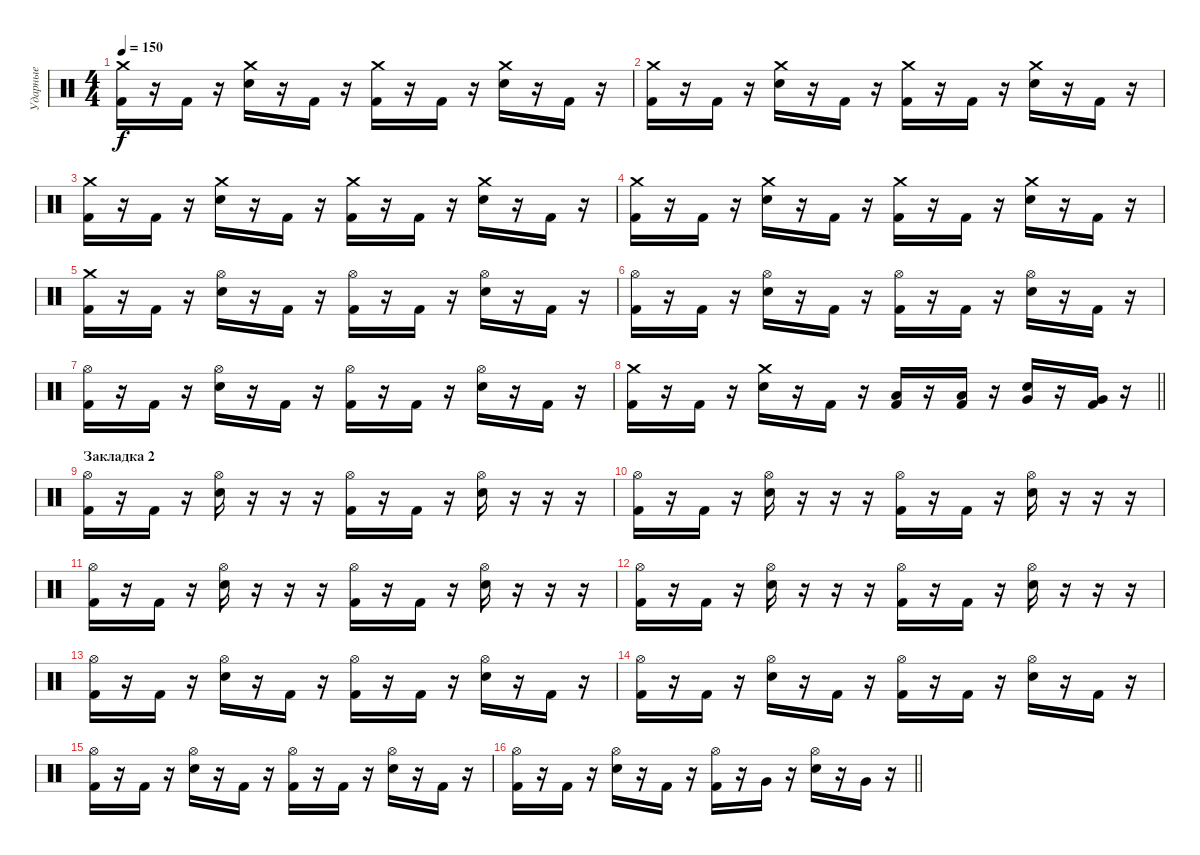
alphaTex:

\track ("Ударные" "Ударные") {instrument percussion}
\staff {score}
\articulation defaults
\ts (4 4)
\tempo 150
\clef neutral
\ks c
("Crash medium (hit)" "Kick (hit) 2").16{dy f} r.16 "Kick (hit) 2".16 r.16 ("Crash medium (hit)" "Electric Snare (hit)").16 r.16 "Kick (hit) 2".16 r.16 ("Crash medium (hit)" "Kick (hit) 2").16 r.16 "Kick (hit) 2".16 r.16 ("Crash medium (hit)" "Electric Snare (hit)").16 r.16 "Kick (hit) 2".16 r.16 |
("Crash medium (hit)" "Kick (hit) 2").16 r.16 "Kick (hit) 2".16 r.16 ("Crash medium (hit)" "Electric Snare (hit)").16 r.16 "Kick (hit) 2".16 r.16 ("Crash medium (hit)" "Kick (hit) 2").16 r.16 "Kick (hit) 2".16 r.16 ("Crash medium (hit)" "Electric Snare (hit)").16 r.16 "Kick (hit) 2".16 r.16 |
("Crash medium (hit)" "Kick (hit) 2").16 r.16 "Kick (hit) 2".16 r.16 ("Crash medium (hit)" "Electric Snare (hit)").16 r.16 "Kick (hit) 2".16 r.16 ("Crash medium (hit)" "Kick (hit) 2").16 r.16 "Kick (hit) 2".16 r.16 ("Crash medium (hit)" "Electric Snare (hit)").16 r.16 "Kick (hit) 2".16 r.16 |
("Crash medium (hit)" "Kick (hit) 2").16 r.16 "Kick (hit) 2".16 r.16 ("Crash medium (hit)" "Electric Snare (hit)").16 r.16 "Kick (hit) 2".16 r.16 ("Crash medium (hit)" "Kick (hit) 2").16 r.16 "Kick (hit) 2".16 r.16 ("Crash medium (hit)" "Electric Snare (hit)").16 r.16 "Kick (hit) 2".16 r.16 |
("Crash medium (hit)" "Kick (hit) 2").16 r.16 "Kick (hit) 2".16 r.16 ("Hi-Hat (open)" "Electric Snare (hit)").16 r.16 "Kick (hit) 2".16 r.16 ("Hi-Hat (open)" "Kick (hit) 2").16 r.16 "Kick (hit) 2".16 r.16 ("Hi-Hat (open)" "Electric Snare (hit)").16 r.16 "Kick (hit) 2".16 r.16 |
("Hi-Hat (open)" "Kick (hit) 2").16 r.16 "Kick (hit) 2".16 r.16 ("Hi-Hat (open)" "Electric Snare (hit)").16 r.16 "Kick (hit) 2".16 r.16 ("Hi-Hat (open)" "Kick (hit) 2").16 r.16 "Kick (hit) 2".16 r.16 ("Hi-Hat (open)" "Electric Snare (hit)").16 r.16 "Kick (hit) 2".16 r.16 |
("Hi-Hat (open)" "Kick (hit) 2").16 r.16 "Kick (hit) 2".16 r.16 ("Hi-Hat (open)" "Electric Snare (hit)").16 r.16 "Kick (hit) 2".16 r.16 ("Hi-Hat (open)" "Kick (hit) 2").16 r.16 "Kick (hit) 2".16 r.16 ("Hi-Hat (open)" "Electric Snare (hit)").16 r.16 "Kick (hit) 2".16 r.16 |
\barLineRight lightlight
("Crash medium (hit)" "Kick (hit) 2").16 r.16 "Kick (hit) 2".16 r.16 ("Crash medium (hit)" "Electric Snare (hit)").16 r.16 "Kick (hit) 2".16 r.16 ("Low Tom (hit)" "Kick (hit) 2").16 r.16 ("Low Tom (hit)" "Kick (hit) 2").16 r.16 ("Very Low Tom (hit)" "Electric Snare (hit)").16 r.16 ("Very Low Tom (hit)" "Kick (hit) 2").16 r.16 |
\section ("" "Закладка 2")
("Hi-Hat (open)" "Kick (hit) 2").16 r.16 "Kick (hit) 2".16 r.16 ("Hi-Hat (open)" "Electric Snare (hit)").16 r.16 r.16 r.16 ("Hi-Hat (open)" "Kick (hit) 2").16 r.16 "Kick (hit) 2".16 r.16 ("Hi-Hat (open)" "Electric Snare (hit)").16 r.16 r.16 r.16 |
("Hi-Hat (open)" "Kick (hit) 2").16 r.16 "Kick (hit) 2".16 r.16 ("Hi-Hat (open)" "Electric Snare (hit)").16 r.16 r.16 r.16 ("Hi-Hat (open)" "Kick (hit) 2").16 r.16 "Kick (hit) 2".16 r.16 ("Hi-Hat (open)" "Electric Snare (hit)").16 r.16 r.16 r.16 |
("Hi-Hat (open)" "Kick (hit) 2").16 r.16 "Kick (hit) 2".16 r.16 ("Hi-Hat (open)" "Electric Snare (hit)").16 r.16 r.16 r.16 ("Hi-Hat (open)" "Kick (hit) 2").16 r.16 "Kick (hit) 2".16 r.16 ("Hi-Hat (open)" "Electric Snare (hit)").16 r.16 r.16 r.16 |
("Hi-Hat (open)" "Kick (hit) 2").16 r.16 "Kick (hit) 2".16 r.16 ("Hi-Hat (open)" "Electric Snare (hit)").16 r.16 r.16 r.16 ("Hi-Hat (open)" "Kick (hit) 2").16 r.16 "Kick (hit) 2".16 r.16 ("Hi-Hat (open)" "Electric Snare (hit)").16 r.16 r.16 r.16 |
("Hi-Hat (open)" "Kick (hit) 2").16 r.16 "Kick (hit) 2".16 r.16 ("Hi-Hat (open)" "Electric Snare (hit)").16 r.16 "Kick (hit) 2".16 r.16 ("Hi-Hat (open)" "Kick (hit) 2").16 r.16 "Kick (hit) 2".16 r.16 ("Hi-Hat (open)" "Electric Snare (hit)").16 r.16 "Kick (hit) 2".16 r.16 |
("Hi-Hat (open)" "Kick (hit) 2").16 r.16 "Kick (hit) 2".16 r.16 ("Hi-Hat (open)" "Electric Snare (hit)").16 r.16 "Kick (hit) 2".16 r.16 ("Hi-Hat (open)" "Kick (hit) 2").16 r.16 "Kick (hit) 2".16 r.16 ("Hi-Hat (open)" "Electric Snare (hit)").16 r.16 "Kick (hit) 2".16 r.16 |
("Hi-Hat (open)" "Kick (hit) 2").16 r.16 "Kick (hit) 2".16 r.16 ("Hi-Hat (open)" "Electric Snare (hit)").16 r.16 "Kick (hit) 2".16 r.16 ("Hi-Hat (open)" "Kick (hit) 2").16 r.16 "Kick (hit) 2".16 r.16 ("Hi-Hat (open)" "Electric Snare (hit)").16 r.16 "Kick (hit) 2".16 r.16 |
\barLineRight lightlight
("Hi-Hat (open)" "Kick (hit) 2").16 r.16 "Kick (hit) 2".16 r.16 ("Hi-Hat (open)" "Electric Snare (hit)").16 r.16 "Kick (hit) 2".16 r.16 ("Hi-Hat (open)" "Kick (hit) 2").16 r.16 "Very Low Tom (hit)".16 r.16 ("Hi-Hat (open)" "Electric Snare (hit)").16 r.16 "Very Low Tom (hit)".16 r.16
